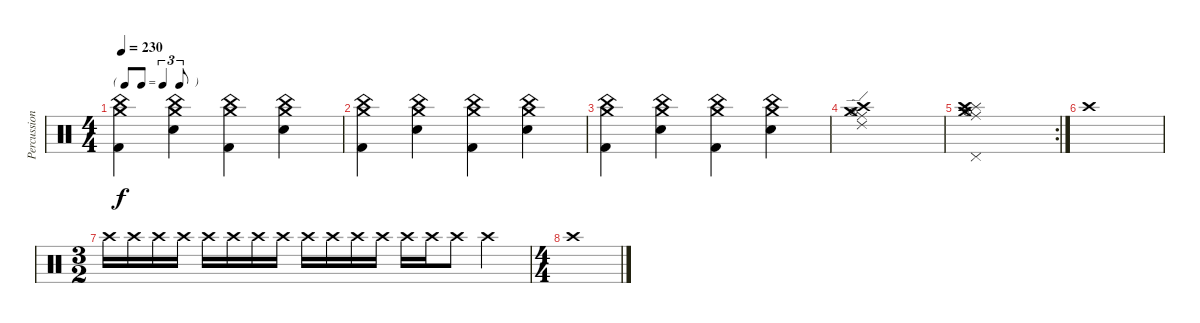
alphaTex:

\track ("Percussion" "Percussion") {instrument percussion}
\staff {score}
\articulation defaults
\ts (4 4)
\tf triplet8th
\tempo 230
\clef neutral
\ks c
("China (hit)" "Crash medium (hit)" "Kick (hit) 2").4{dy f} ("Electric Snare (hit)" "China (hit)" "Crash medium (hit)").4 ("Kick (hit) 2" "China (hit)" "Crash medium (hit)").4 ("Electric Snare (hit)" "China (hit)" "Crash medium (hit)").4 |
("China (hit)" "Crash medium (hit)" "Kick (hit) 2").4 ("Electric Snare (hit)" "China (hit)" "Crash medium (hit)").4 ("Kick (hit) 2" "China (hit)" "Crash medium (hit)").4 ("Electric Snare (hit)" "China (hit)" "Crash medium (hit)").4 |
("China (hit)" "Crash medium (hit)" "Kick (hit) 2").4 ("Electric Snare (hit)" "China (hit)" "Crash medium (hit)").4 ("Kick (hit) 2" "China (hit)" "Crash medium (hit)").4 ("Electric Snare (hit)" "China (hit)" "Crash medium (hit)").4 |
("Crash medium (hit)" "Ride (middle)" "Hi-Hat (open)" "Crash high (hit)" "Ride (edge) 2").1 |
\rc 2
("Crash medium (hit)" "Splash (hit)" "Ride (middle)" "Crash high (hit)" "Pedal Hi-Hat (hit)" "Hi-Hat (open)").1 |
"Crash high (hit)".1 |
\ts (3 2)
"Crash high (hit)".16 "Crash high (hit)".16 "Crash high (hit)".16 "Crash high (hit)".16 "Crash high (hit)".16 "Crash high (hit)".16 "Crash high (hit)".16 "Crash high (hit)".16 "Crash high (hit)".16 "Crash high (hit)".16 "Crash high (hit)".16 "Crash high (hit)".16 "Crash high (hit)".16 "Crash high (hit)".16 "Crash high (hit)".8 "Crash high (hit)".2 |
\ts (4 4)
"Crash high (hit)".1
